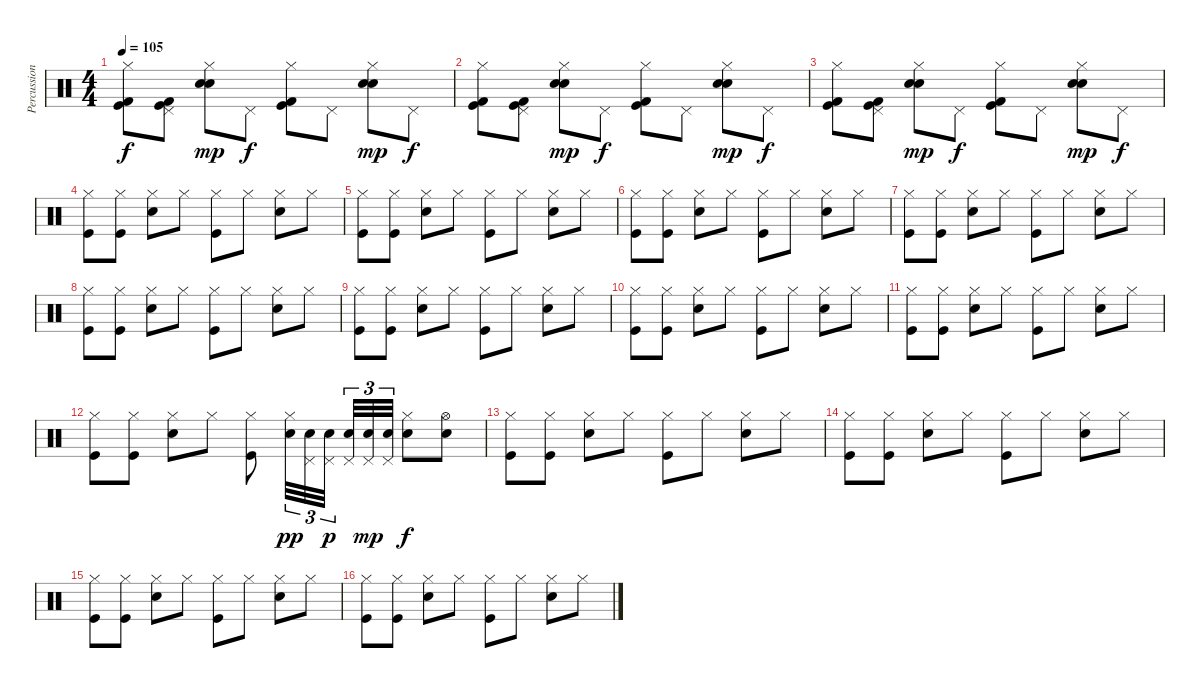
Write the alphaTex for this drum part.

\track ("Percussions" "Percussion") {instrument percussion}
\staff {score}
\articulation defaults
\ts (4 4)
\tempo 105
\clef neutral
\ks c
("Hi-Hat (closed)" "Kick (hit) 2" "Kick (hit)").8{dy f} ("Pedal Hi-Hat (hit)" "Kick (hit) 2" "Kick (hit)").8 ("Hi-Hat (closed)" "Electric Snare (hit)" "Snare (hit) 2").8{dy mp} "Pedal Hi-Hat (hit)".8{dy f} ("Hi-Hat (closed)" "Kick (hit) 2" "Kick (hit)").8 "Pedal Hi-Hat (hit)".8 ("Hi-Hat (closed)" "Electric Snare (hit)" "Snare (hit) 2").8{dy mp} "Pedal Hi-Hat (hit)".8{dy f} |
("Hi-Hat (closed)" "Kick (hit) 2" "Kick (hit)").8 ("Pedal Hi-Hat (hit)" "Kick (hit) 2" "Kick (hit)").8 ("Hi-Hat (closed)" "Electric Snare (hit)" "Snare (hit) 2").8{dy mp} "Pedal Hi-Hat (hit)".8{dy f} ("Hi-Hat (closed)" "Kick (hit) 2" "Kick (hit)").8 "Pedal Hi-Hat (hit)".8 ("Hi-Hat (closed)" "Electric Snare (hit)" "Snare (hit) 2").8{dy mp} "Pedal Hi-Hat (hit)".8{dy f} |
("Hi-Hat (closed)" "Kick (hit) 2" "Kick (hit)").8 ("Pedal Hi-Hat (hit)" "Kick (hit) 2" "Kick (hit)").8 ("Hi-Hat (closed)" "Electric Snare (hit)" "Snare (hit) 2").8{dy mp} "Pedal Hi-Hat (hit)".8{dy f} ("Hi-Hat (closed)" "Kick (hit) 2" "Kick (hit)").8 "Pedal Hi-Hat (hit)".8 ("Hi-Hat (closed)" "Electric Snare (hit)" "Snare (hit) 2").8{dy mp} "Pedal Hi-Hat (hit)".8{dy f} |
("Hi-Hat (closed)" "Kick (hit)").8 ("Hi-Hat (closed)" "Kick (hit)").8 ("Hi-Hat (closed)" "Electric Snare (hit)").8 "Hi-Hat (closed)".8 ("Hi-Hat (closed)" "Kick (hit)").8 "Hi-Hat (closed)".8 ("Hi-Hat (closed)" "Electric Snare (hit)").8 "Hi-Hat (closed)".8 |
("Hi-Hat (closed)" "Kick (hit)").8 ("Hi-Hat (closed)" "Kick (hit)").8 ("Hi-Hat (closed)" "Electric Snare (hit)").8 "Hi-Hat (closed)".8 ("Hi-Hat (closed)" "Kick (hit)").8 "Hi-Hat (closed)".8 ("Hi-Hat (closed)" "Electric Snare (hit)").8 "Hi-Hat (closed)".8 |
("Hi-Hat (closed)" "Kick (hit)").8 ("Hi-Hat (closed)" "Kick (hit)").8 ("Hi-Hat (closed)" "Electric Snare (hit)").8 "Hi-Hat (closed)".8 ("Hi-Hat (closed)" "Kick (hit)").8 "Hi-Hat (closed)".8 ("Hi-Hat (closed)" "Electric Snare (hit)").8 "Hi-Hat (closed)".8 |
("Hi-Hat (closed)" "Kick (hit)").8 ("Hi-Hat (closed)" "Kick (hit)").8 ("Hi-Hat (closed)" "Electric Snare (hit)").8 "Hi-Hat (closed)".8 ("Hi-Hat (closed)" "Kick (hit)").8 "Hi-Hat (closed)".8 ("Hi-Hat (closed)" "Electric Snare (hit)").8 "Hi-Hat (closed)".8 |
("Hi-Hat (closed)" "Kick (hit)").8 ("Hi-Hat (closed)" "Kick (hit)").8 ("Hi-Hat (closed)" "Electric Snare (hit)").8 "Hi-Hat (closed)".8 ("Hi-Hat (closed)" "Kick (hit)").8 "Hi-Hat (closed)".8 ("Hi-Hat (closed)" "Electric Snare (hit)").8 "Hi-Hat (closed)".8 |
("Hi-Hat (closed)" "Kick (hit)").8 ("Hi-Hat (closed)" "Kick (hit)").8 ("Hi-Hat (closed)" "Electric Snare (hit)").8 "Hi-Hat (closed)".8 ("Hi-Hat (closed)" "Kick (hit)").8 "Hi-Hat (closed)".8 ("Hi-Hat (closed)" "Electric Snare (hit)").8 "Hi-Hat (closed)".8 |
("Hi-Hat (closed)" "Kick (hit)").8 ("Hi-Hat (closed)" "Kick (hit)").8 ("Hi-Hat (closed)" "Electric Snare (hit)").8 "Hi-Hat (closed)".8 ("Hi-Hat (closed)" "Kick (hit)").8 "Hi-Hat (closed)".8 ("Hi-Hat (closed)" "Electric Snare (hit)").8 "Hi-Hat (closed)".8 |
("Hi-Hat (closed)" "Kick (hit)").8 ("Hi-Hat (closed)" "Kick (hit)").8 ("Hi-Hat (closed)" "Electric Snare (hit)").8 "Hi-Hat (closed)".8 ("Hi-Hat (closed)" "Kick (hit)").8 "Hi-Hat (closed)".8 ("Hi-Hat (closed)" "Electric Snare (hit)").8 "Hi-Hat (closed)".8 |
("Hi-Hat (closed)" "Kick (hit)").8 ("Hi-Hat (closed)" "Kick (hit)").8 ("Hi-Hat (closed)" "Electric Snare (hit)").8 "Hi-Hat (closed)".8 ("Hi-Hat (closed)" "Kick (hit)").8 ("Hi-Hat (closed)" "Electric Snare (hit)").32{tu (3 2) dy pp} ("Pedal Hi-Hat (hit)" "Electric Snare (hit)").32{tu (3 2)} ("Pedal Hi-Hat (hit)" "Electric Snare (hit)").32{tu (3 2) dy p} ("Pedal Hi-Hat (hit)" "Electric Snare (hit)").32{tu (3 2)} ("Pedal Hi-Hat (hit)" "Electric Snare (hit)").32{tu (3 2) dy mp} ("Pedal Hi-Hat (hit)" "Electric Snare (hit)").32{tu (3 2)} ("Hi-Hat (closed)" "Electric Snare (hit)").8{dy f} ("Hi-Hat (open)" "Electric Snare (hit)").8 |
("Hi-Hat (closed)" "Kick (hit)").8 ("Hi-Hat (closed)" "Kick (hit)").8 ("Hi-Hat (closed)" "Electric Snare (hit)").8 "Hi-Hat (closed)".8 ("Hi-Hat (closed)" "Kick (hit)").8 "Hi-Hat (closed)".8 ("Hi-Hat (closed)" "Electric Snare (hit)").8 "Hi-Hat (closed)".8 |
("Hi-Hat (closed)" "Kick (hit)").8 ("Hi-Hat (closed)" "Kick (hit)").8 ("Hi-Hat (closed)" "Electric Snare (hit)").8 "Hi-Hat (closed)".8 ("Hi-Hat (closed)" "Kick (hit)").8 "Hi-Hat (closed)".8 ("Hi-Hat (closed)" "Electric Snare (hit)").8 "Hi-Hat (closed)".8 |
("Hi-Hat (closed)" "Kick (hit)").8 ("Hi-Hat (closed)" "Kick (hit)").8 ("Hi-Hat (closed)" "Electric Snare (hit)").8 "Hi-Hat (closed)".8 ("Hi-Hat (closed)" "Kick (hit)").8 "Hi-Hat (closed)".8 ("Hi-Hat (closed)" "Electric Snare (hit)").8 "Hi-Hat (closed)".8 |
("Hi-Hat (closed)" "Kick (hit)").8 ("Hi-Hat (closed)" "Kick (hit)").8 ("Hi-Hat (closed)" "Electric Snare (hit)").8 "Hi-Hat (closed)".8 ("Hi-Hat (closed)" "Kick (hit)").8 "Hi-Hat (closed)".8 ("Hi-Hat (closed)" "Electric Snare (hit)").8 "Hi-Hat (closed)".8
